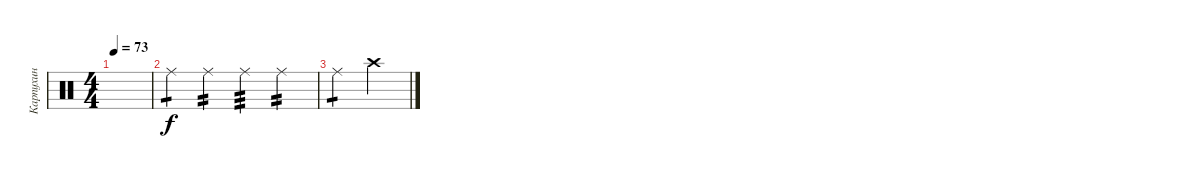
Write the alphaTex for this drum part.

\track ("Карпухин" "Карпухин") {instrument percussion}
\staff {score}
\articulation defaults
\ts (4 4)
\tempo 73
\clef neutral
\ks c
|
"Ride (middle)".4{tp 1} "Ride (middle)".4{tp 2} "Ride (middle)".4{tp 3} "Ride (middle)".4{tp 2} |
"Ride (middle)".4{tp 1} "Crash high (hit)".4
